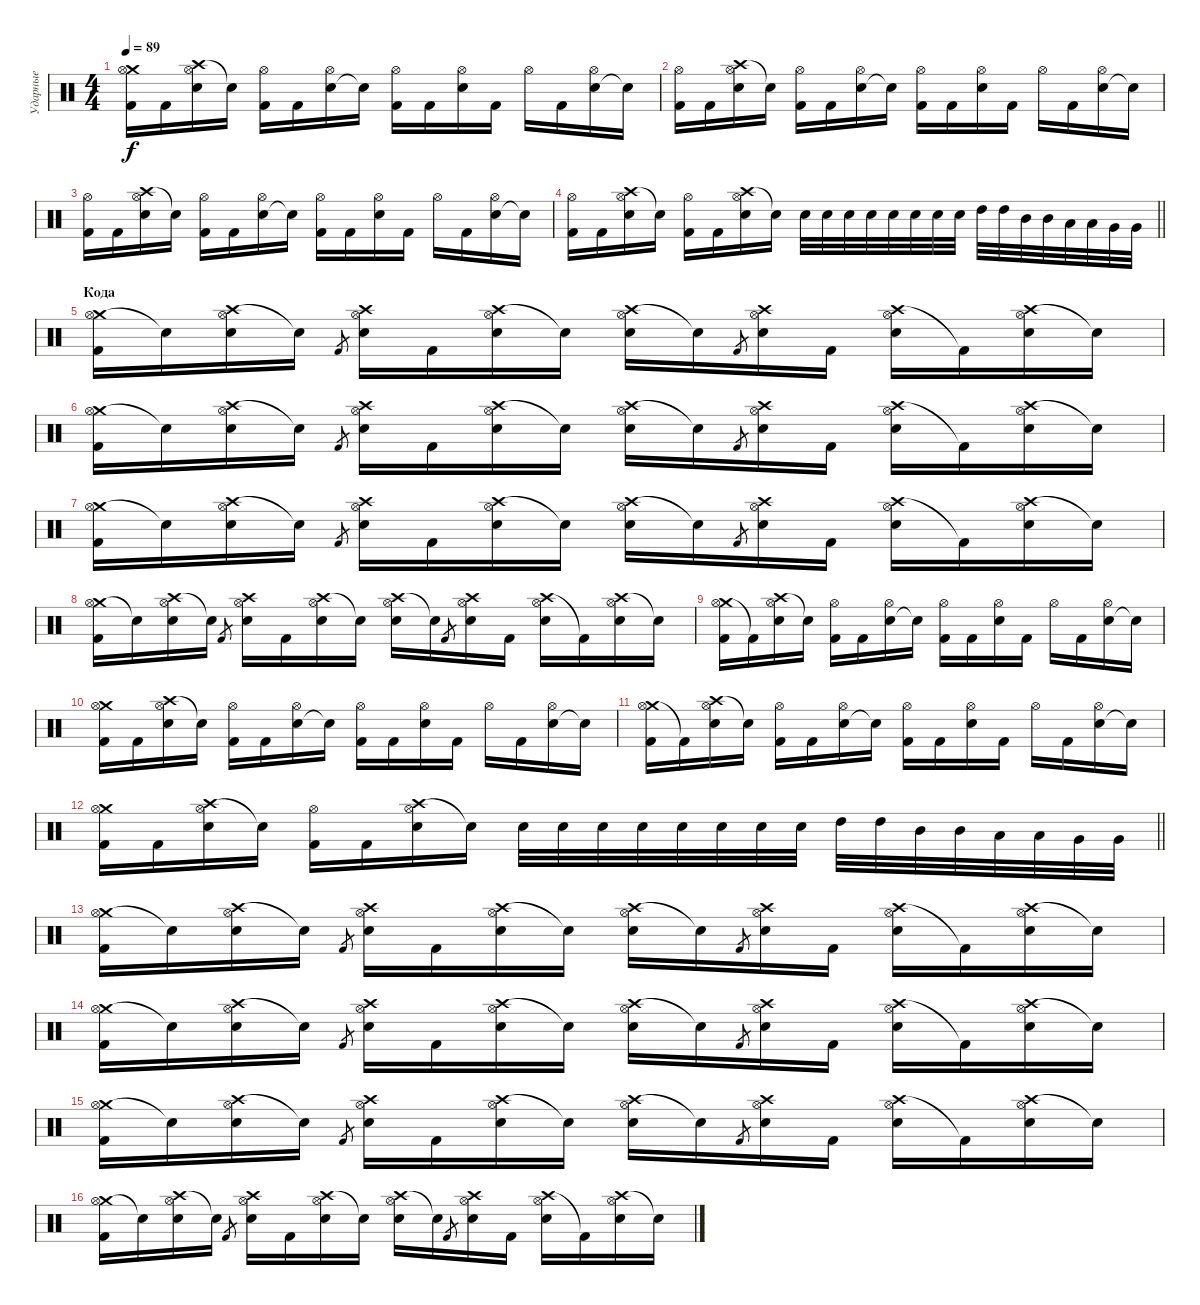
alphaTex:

\track ("Ударные" "Ударные") {instrument percussion}
\staff {score}
\articulation defaults
\ts (4 4)
\tempo 89
\clef neutral
\ks c
("Crash medium (hit)" "Kick (hit) 2" "Hi-Hat (open)").16{dy f} "Kick (hit) 2".16 ("Crash high (hit)" "Electric Snare (hit)" "Hi-Hat (open)").16 "Snare (hit)"{t}.16 ("Kick (hit) 2" "Hi-Hat (open)").16 "Kick (hit) 2".16 ("Electric Snare (hit)" "Hi-Hat (open)").16 "Snare (hit)"{t}.16 ("Kick (hit) 2" "Hi-Hat (open)").16 "Kick (hit) 2".16 ("Electric Snare (hit)" "Hi-Hat (open)").16 "Kick (hit) 2".16 "Hi-Hat (open)".16 "Kick (hit) 2".16 ("Electric Snare (hit)" "Hi-Hat (open)").16 "Snare (hit)"{t}.16 |
("Kick (hit) 2" "Hi-Hat (open)").16 "Kick (hit) 2".16 ("Crash high (hit)" "Electric Snare (hit)" "Hi-Hat (open)").16 "Snare (hit)"{t}.16 ("Kick (hit) 2" "Hi-Hat (open)").16 "Kick (hit) 2".16 ("Electric Snare (hit)" "Hi-Hat (open)").16 "Snare (hit)"{t}.16 ("Kick (hit) 2" "Hi-Hat (open)").16 "Kick (hit) 2".16 ("Electric Snare (hit)" "Hi-Hat (open)").16 "Kick (hit) 2".16 "Hi-Hat (open)".16 "Kick (hit) 2".16 ("Electric Snare (hit)" "Hi-Hat (open)").16 "Snare (hit)"{t}.16 |
("Kick (hit) 2" "Hi-Hat (open)").16 "Kick (hit) 2".16 ("Crash high (hit)" "Electric Snare (hit)" "Hi-Hat (open)").16 "Snare (hit)"{t}.16 ("Kick (hit) 2" "Hi-Hat (open)").16 "Kick (hit) 2".16 ("Electric Snare (hit)" "Hi-Hat (open)").16 "Snare (hit)"{t}.16 ("Kick (hit) 2" "Hi-Hat (open)").16 "Kick (hit) 2".16 ("Electric Snare (hit)" "Hi-Hat (open)").16 "Kick (hit) 2".16 "Hi-Hat (open)".16 "Kick (hit) 2".16 ("Electric Snare (hit)" "Hi-Hat (open)").16 "Snare (hit)"{t}.16 |
\barLineRight lightlight
("Kick (hit) 2" "Hi-Hat (open)").16 "Kick (hit) 2".16 ("Crash high (hit)" "Electric Snare (hit)" "Hi-Hat (open)").16 "Snare (hit)"{t}.16 ("Kick (hit) 2" "Hi-Hat (open)").16 "Kick (hit) 2".16 ("Crash high (hit)" "Electric Snare (hit)" "Hi-Hat (open)").16 "Snare (hit)"{t}.16 "Electric Snare (hit)".32 "Electric Snare (hit)".32 "Electric Snare (hit)".32 "Electric Snare (hit)".32 "Electric Snare (hit)".32 "Electric Snare (hit)".32 "Electric Snare (hit)".32 "Electric Snare (hit)".32 "High Tom (hit)".32 "High Tom (hit)".32 "Mid Tom (hit)".32 "Mid Tom (hit)".32 "Low Tom (hit)".32 "Low Tom (hit)".32 "Very Low Tom (hit)".32 "Very Low Tom (hit)".32 |
\section ("" "Кода")
("Crash medium (hit)" "Kick (hit) 2" "Hi-Hat (open)").16 "Snare (hit)"{t}.16 ("Crash high (hit)" "Electric Snare (hit)" "Hi-Hat (open)").16 "Snare (hit)"{t}.16 "Kick (hit) 2".8{gr} ("Crash high (hit)" "Electric Snare (hit)" "Hi-Hat (open)").16 "Kick (hit) 2".16 ("Crash high (hit)" "Electric Snare (hit)" "Hi-Hat (open)").16 "Snare (hit)"{t}.16 ("Crash high (hit)" "Electric Snare (hit)" "Hi-Hat (open)").16 "Snare (hit)"{t}.16 "Kick (hit) 2".8{gr} ("Crash high (hit)" "Electric Snare (hit)" "Hi-Hat (open)").16 "Kick (hit) 2".16 ("Crash high (hit)" "Electric Snare (hit)" "Hi-Hat (open)").16 "Kick (hit) 2"{t}.16 ("Crash high (hit)" "Electric Snare (hit)" "Hi-Hat (open)").16 "Snare (hit)"{t}.16 |
("Crash medium (hit)" "Kick (hit) 2" "Hi-Hat (open)").16 "Snare (hit)"{t}.16 ("Crash high (hit)" "Electric Snare (hit)" "Hi-Hat (open)").16 "Snare (hit)"{t}.16 "Kick (hit) 2".8{gr} ("Crash high (hit)" "Electric Snare (hit)" "Hi-Hat (open)").16 "Kick (hit) 2".16 ("Crash high (hit)" "Electric Snare (hit)" "Hi-Hat (open)").16 "Snare (hit)"{t}.16 ("Crash high (hit)" "Electric Snare (hit)" "Hi-Hat (open)").16 "Snare (hit)"{t}.16 "Kick (hit) 2".8{gr} ("Crash high (hit)" "Electric Snare (hit)" "Hi-Hat (open)").16 "Kick (hit) 2".16 ("Crash high (hit)" "Electric Snare (hit)" "Hi-Hat (open)").16 "Kick (hit) 2"{t}.16 ("Crash high (hit)" "Electric Snare (hit)" "Hi-Hat (open)").16 "Snare (hit)"{t}.16 |
("Crash medium (hit)" "Kick (hit) 2" "Hi-Hat (open)").16 "Snare (hit)"{t}.16 ("Crash high (hit)" "Electric Snare (hit)" "Hi-Hat (open)").16 "Snare (hit)"{t}.16 "Kick (hit) 2".8{gr} ("Crash high (hit)" "Electric Snare (hit)" "Hi-Hat (open)").16 "Kick (hit) 2".16 ("Crash high (hit)" "Electric Snare (hit)" "Hi-Hat (open)").16 "Snare (hit)"{t}.16 ("Crash high (hit)" "Electric Snare (hit)" "Hi-Hat (open)").16 "Snare (hit)"{t}.16 "Kick (hit) 2".8{gr} ("Crash high (hit)" "Electric Snare (hit)" "Hi-Hat (open)").16 "Kick (hit) 2".16 ("Crash high (hit)" "Electric Snare (hit)" "Hi-Hat (open)").16 "Kick (hit) 2"{t}.16 ("Crash high (hit)" "Electric Snare (hit)" "Hi-Hat (open)").16 "Snare (hit)"{t}.16 |
("Crash medium (hit)" "Kick (hit) 2" "Hi-Hat (open)").16 "Snare (hit)"{t}.16 ("Crash high (hit)" "Electric Snare (hit)" "Hi-Hat (open)").16 "Snare (hit)"{t}.16 "Kick (hit) 2".8{gr} ("Crash high (hit)" "Electric Snare (hit)" "Hi-Hat (open)").16 "Kick (hit) 2".16 ("Crash high (hit)" "Electric Snare (hit)" "Hi-Hat (open)").16 "Snare (hit)"{t}.16 ("Crash high (hit)" "Electric Snare (hit)" "Hi-Hat (open)").16 "Snare (hit)"{t}.16 "Kick (hit) 2".8{gr} ("Crash high (hit)" "Electric Snare (hit)" "Hi-Hat (open)").16 "Kick (hit) 2".16 ("Crash high (hit)" "Electric Snare (hit)" "Hi-Hat (open)").16 "Kick (hit) 2"{t}.16 ("Crash high (hit)" "Electric Snare (hit)" "Hi-Hat (open)").16 "Snare (hit)"{t}.16 |
("Crash medium (hit)" "Kick (hit) 2" "Hi-Hat (open)").16 "Kick (hit) 2"{t}.16 ("Crash high (hit)" "Electric Snare (hit)" "Hi-Hat (open)").16 "Snare (hit)"{t}.16 ("Kick (hit) 2" "Hi-Hat (open)").16 "Kick (hit) 2".16 ("Electric Snare (hit)" "Hi-Hat (open)").16 "Snare (hit)"{t}.16 ("Kick (hit) 2" "Hi-Hat (open)").16 "Kick (hit) 2".16 ("Electric Snare (hit)" "Hi-Hat (open)").16 "Kick (hit) 2".16 "Hi-Hat (open)".16 "Kick (hit) 2".16 ("Electric Snare (hit)" "Hi-Hat (open)").16 "Snare (hit)"{t}.16 |
("Crash medium (hit)" "Kick (hit) 2" "Hi-Hat (open)").16 "Kick (hit) 2".16 ("Crash high (hit)" "Electric Snare (hit)" "Hi-Hat (open)").16 "Snare (hit)"{t}.16 ("Kick (hit) 2" "Hi-Hat (open)").16 "Kick (hit) 2".16 ("Electric Snare (hit)" "Hi-Hat (open)").16 "Snare (hit)"{t}.16 ("Kick (hit) 2" "Hi-Hat (open)").16 "Kick (hit) 2".16 ("Electric Snare (hit)" "Hi-Hat (open)").16 "Kick (hit) 2".16 "Hi-Hat (open)".16 "Kick (hit) 2".16 ("Electric Snare (hit)" "Hi-Hat (open)").16 "Snare (hit)"{t}.16 |
("Crash medium (hit)" "Kick (hit) 2" "Hi-Hat (open)").16 "Kick (hit) 2"{t}.16 ("Crash high (hit)" "Electric Snare (hit)" "Hi-Hat (open)").16 "Snare (hit)"{t}.16 ("Kick (hit) 2" "Hi-Hat (open)").16 "Kick (hit) 2".16 ("Electric Snare (hit)" "Hi-Hat (open)").16 "Snare (hit)"{t}.16 ("Kick (hit) 2" "Hi-Hat (open)").16 "Kick (hit) 2".16 ("Electric Snare (hit)" "Hi-Hat (open)").16 "Kick (hit) 2".16 "Hi-Hat (open)".16 "Kick (hit) 2".16 ("Electric Snare (hit)" "Hi-Hat (open)").16 "Snare (hit)"{t}.16 |
\barLineRight lightlight
("Crash medium (hit)" "Kick (hit) 2" "Hi-Hat (open)").16 "Kick (hit) 2".16 ("Crash high (hit)" "Electric Snare (hit)" "Hi-Hat (open)").16 "Snare (hit)"{t}.16 ("Kick (hit) 2" "Hi-Hat (open)").16 "Kick (hit) 2".16 ("Crash high (hit)" "Electric Snare (hit)" "Hi-Hat (open)").16 "Snare (hit)"{t}.16 "Electric Snare (hit)".32 "Electric Snare (hit)".32 "Electric Snare (hit)".32 "Electric Snare (hit)".32 "Electric Snare (hit)".32 "Electric Snare (hit)".32 "Electric Snare (hit)".32 "Electric Snare (hit)".32 "High Tom (hit)".32 "High Tom (hit)".32 "Mid Tom (hit)".32 "Mid Tom (hit)".32 "Low Tom (hit)".32 "Low Tom (hit)".32 "Very Low Tom (hit)".32 "Very Low Tom (hit)".32 |
("Crash medium (hit)" "Kick (hit) 2" "Hi-Hat (open)").16 "Snare (hit)"{t}.16 ("Crash high (hit)" "Electric Snare (hit)" "Hi-Hat (open)").16 "Snare (hit)"{t}.16 "Kick (hit) 2".8{gr} ("Crash high (hit)" "Electric Snare (hit)" "Hi-Hat (open)").16 "Kick (hit) 2".16 ("Crash high (hit)" "Electric Snare (hit)" "Hi-Hat (open)").16 "Snare (hit)"{t}.16 ("Crash high (hit)" "Electric Snare (hit)" "Hi-Hat (open)").16 "Snare (hit)"{t}.16 "Kick (hit) 2".8{gr} ("Crash high (hit)" "Electric Snare (hit)" "Hi-Hat (open)").16 "Kick (hit) 2".16 ("Crash high (hit)" "Electric Snare (hit)" "Hi-Hat (open)").16 "Kick (hit) 2"{t}.16 ("Crash high (hit)" "Electric Snare (hit)" "Hi-Hat (open)").16 "Snare (hit)"{t}.16 |
("Crash medium (hit)" "Kick (hit) 2" "Hi-Hat (open)").16 "Snare (hit)"{t}.16 ("Crash high (hit)" "Electric Snare (hit)" "Hi-Hat (open)").16 "Snare (hit)"{t}.16 "Kick (hit) 2".8{gr} ("Crash high (hit)" "Electric Snare (hit)" "Hi-Hat (open)").16 "Kick (hit) 2".16 ("Crash high (hit)" "Electric Snare (hit)" "Hi-Hat (open)").16 "Snare (hit)"{t}.16 ("Crash high (hit)" "Electric Snare (hit)" "Hi-Hat (open)").16 "Snare (hit)"{t}.16 "Kick (hit) 2".8{gr} ("Crash high (hit)" "Electric Snare (hit)" "Hi-Hat (open)").16 "Kick (hit) 2".16 ("Crash high (hit)" "Electric Snare (hit)" "Hi-Hat (open)").16 "Kick (hit) 2"{t}.16 ("Crash high (hit)" "Electric Snare (hit)" "Hi-Hat (open)").16 "Snare (hit)"{t}.16 |
("Crash medium (hit)" "Kick (hit) 2" "Hi-Hat (open)").16 "Snare (hit)"{t}.16 ("Crash high (hit)" "Electric Snare (hit)" "Hi-Hat (open)").16 "Snare (hit)"{t}.16 "Kick (hit) 2".8{gr} ("Crash high (hit)" "Electric Snare (hit)" "Hi-Hat (open)").16 "Kick (hit) 2".16 ("Crash high (hit)" "Electric Snare (hit)" "Hi-Hat (open)").16 "Snare (hit)"{t}.16 ("Crash high (hit)" "Electric Snare (hit)" "Hi-Hat (open)").16 "Snare (hit)"{t}.16 "Kick (hit) 2".8{gr} ("Crash high (hit)" "Electric Snare (hit)" "Hi-Hat (open)").16 "Kick (hit) 2".16 ("Crash high (hit)" "Electric Snare (hit)" "Hi-Hat (open)").16 "Kick (hit) 2"{t}.16 ("Crash high (hit)" "Electric Snare (hit)" "Hi-Hat (open)").16 "Snare (hit)"{t}.16 |
("Crash medium (hit)" "Kick (hit) 2" "Hi-Hat (open)").16 "Snare (hit)"{t}.16 ("Crash high (hit)" "Electric Snare (hit)" "Hi-Hat (open)").16 "Snare (hit)"{t}.16 "Kick (hit) 2".8{gr} ("Crash high (hit)" "Electric Snare (hit)" "Hi-Hat (open)").16 "Kick (hit) 2".16 ("Crash high (hit)" "Electric Snare (hit)" "Hi-Hat (open)").16 "Snare (hit)"{t}.16 ("Crash high (hit)" "Electric Snare (hit)" "Hi-Hat (open)").16 "Snare (hit)"{t}.16 "Kick (hit) 2".8{gr} ("Crash high (hit)" "Electric Snare (hit)" "Hi-Hat (open)").16 "Kick (hit) 2".16 ("Crash high (hit)" "Electric Snare (hit)" "Hi-Hat (open)").16 "Kick (hit) 2"{t}.16 ("Crash high (hit)" "Electric Snare (hit)" "Hi-Hat (open)").16 "Snare (hit)"{t}.16
